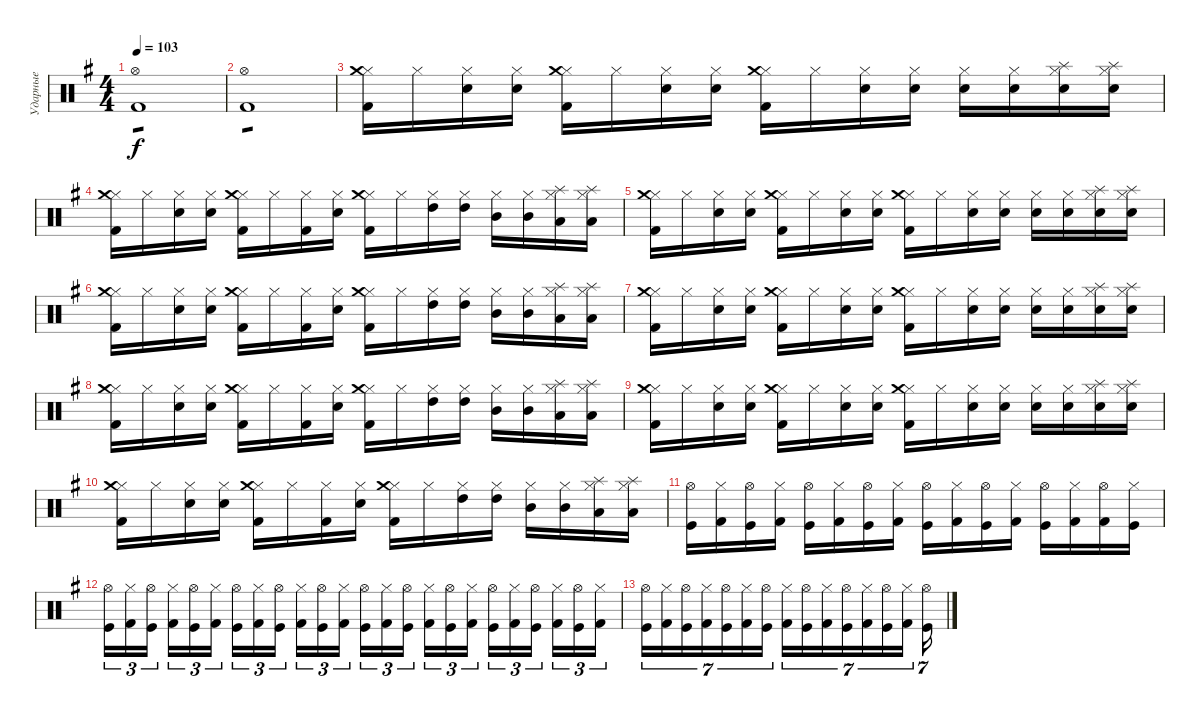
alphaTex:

\track ("Ударные" "Ударные") {instrument percussion}
\staff {score}
\articulation defaults
\ts (4 4)
\tempo 103
\clef neutral
\ks eminor
("Hi-Hat (open)" "Kick (hit) 2").1{tp 1 dy f} |
("Hi-Hat (open)" "Kick (hit) 2").1{tp 1} |
("Hi-Hat (closed)" "Crash medium (hit)" "Kick (hit) 2").16 "Hi-Hat (closed)".16 ("Hi-Hat (closed)" "Snare (hit) 2").16 ("Hi-Hat (closed)" "Snare (hit) 2").16 ("Hi-Hat (closed)" "Crash medium (hit)" "Kick (hit) 2").16 "Hi-Hat (closed)".16 ("Hi-Hat (closed)" "Snare (hit) 2").16 ("Hi-Hat (closed)" "Snare (hit) 2").16 ("Hi-Hat (closed)" "Crash medium (hit)" "Kick (hit) 2").16 "Hi-Hat (closed)".16 ("Hi-Hat (closed)" "Snare (hit) 2").16 ("Hi-Hat (closed)" "Snare (hit) 2").16 ("Hi-Hat (closed)" "Snare (hit) 2").16 ("Hi-Hat (closed)" "Snare (hit) 2").16 ("Hi-Hat (closed)" "Snare (hit) 2" "Splash (hit)").16 ("Hi-Hat (closed)" "Snare (hit) 2" "Splash (hit)").16 |
("Hi-Hat (closed)" "Crash medium (hit)" "Kick (hit) 2").16 "Hi-Hat (closed)".16 ("Hi-Hat (closed)" "Snare (hit) 2").16 ("Hi-Hat (closed)" "Snare (hit) 2").16 ("Hi-Hat (closed)" "Crash medium (hit)" "Kick (hit) 2").16 "Hi-Hat (closed)".16 ("Hi-Hat (closed)" "Kick (hit) 2").16 ("Hi-Hat (closed)" "Snare (hit) 2").16 ("Hi-Hat (closed)" "Crash medium (hit)" "Kick (hit) 2").16 "Hi-Hat (closed)".16 ("Hi-Hat (closed)" "High Tom (hit)").16 ("Hi-Hat (closed)" "High Tom (hit)").16 ("Hi-Hat (closed)" "Mid Tom (hit)").16 ("Hi-Hat (closed)" "Mid Tom (hit)").16 ("Hi-Hat (closed)" "Low Tom (hit)" "Splash (hit)").16 ("Hi-Hat (closed)" "Low Tom (hit)" "Splash (hit)").16 |
("Hi-Hat (closed)" "Crash medium (hit)" "Kick (hit) 2").16 "Hi-Hat (closed)".16 ("Hi-Hat (closed)" "Snare (hit) 2").16 ("Hi-Hat (closed)" "Snare (hit) 2").16 ("Hi-Hat (closed)" "Crash medium (hit)" "Kick (hit) 2").16 "Hi-Hat (closed)".16 ("Hi-Hat (closed)" "Snare (hit) 2").16 ("Hi-Hat (closed)" "Snare (hit) 2").16 ("Hi-Hat (closed)" "Crash medium (hit)" "Kick (hit) 2").16 "Hi-Hat (closed)".16 ("Hi-Hat (closed)" "Snare (hit) 2").16 ("Hi-Hat (closed)" "Snare (hit) 2").16 ("Hi-Hat (closed)" "Snare (hit) 2").16 ("Hi-Hat (closed)" "Snare (hit) 2").16 ("Hi-Hat (closed)" "Snare (hit) 2" "Splash (hit)").16 ("Hi-Hat (closed)" "Snare (hit) 2" "Splash (hit)").16 |
("Hi-Hat (closed)" "Crash medium (hit)" "Kick (hit) 2").16 "Hi-Hat (closed)".16 ("Hi-Hat (closed)" "Snare (hit) 2").16 ("Hi-Hat (closed)" "Snare (hit) 2").16 ("Hi-Hat (closed)" "Crash medium (hit)" "Kick (hit) 2").16 "Hi-Hat (closed)".16 ("Hi-Hat (closed)" "Kick (hit) 2").16 ("Hi-Hat (closed)" "Snare (hit) 2").16 ("Hi-Hat (closed)" "Crash medium (hit)" "Kick (hit) 2").16 "Hi-Hat (closed)".16 ("Hi-Hat (closed)" "High Tom (hit)").16 ("Hi-Hat (closed)" "High Tom (hit)").16 ("Hi-Hat (closed)" "Mid Tom (hit)").16 ("Hi-Hat (closed)" "Mid Tom (hit)").16 ("Hi-Hat (closed)" "Low Tom (hit)" "Splash (hit)").16 ("Hi-Hat (closed)" "Low Tom (hit)" "Splash (hit)").16 |
("Hi-Hat (closed)" "Crash medium (hit)" "Kick (hit) 2").16 "Hi-Hat (closed)".16 ("Hi-Hat (closed)" "Snare (hit) 2").16 ("Hi-Hat (closed)" "Snare (hit) 2").16 ("Hi-Hat (closed)" "Crash medium (hit)" "Kick (hit) 2").16 "Hi-Hat (closed)".16 ("Hi-Hat (closed)" "Snare (hit) 2").16 ("Hi-Hat (closed)" "Snare (hit) 2").16 ("Hi-Hat (closed)" "Crash medium (hit)" "Kick (hit) 2").16 "Hi-Hat (closed)".16 ("Hi-Hat (closed)" "Snare (hit) 2").16 ("Hi-Hat (closed)" "Snare (hit) 2").16 ("Hi-Hat (closed)" "Snare (hit) 2").16 ("Hi-Hat (closed)" "Snare (hit) 2").16 ("Hi-Hat (closed)" "Snare (hit) 2" "Splash (hit)").16 ("Hi-Hat (closed)" "Snare (hit) 2" "Splash (hit)").16 |
("Hi-Hat (closed)" "Crash medium (hit)" "Kick (hit) 2").16 "Hi-Hat (closed)".16 ("Hi-Hat (closed)" "Snare (hit) 2").16 ("Hi-Hat (closed)" "Snare (hit) 2").16 ("Hi-Hat (closed)" "Crash medium (hit)" "Kick (hit) 2").16 "Hi-Hat (closed)".16 ("Hi-Hat (closed)" "Kick (hit) 2").16 ("Hi-Hat (closed)" "Snare (hit) 2").16 ("Hi-Hat (closed)" "Crash medium (hit)" "Kick (hit) 2").16 "Hi-Hat (closed)".16 ("Hi-Hat (closed)" "High Tom (hit)").16 ("Hi-Hat (closed)" "High Tom (hit)").16 ("Hi-Hat (closed)" "Mid Tom (hit)").16 ("Hi-Hat (closed)" "Mid Tom (hit)").16 ("Hi-Hat (closed)" "Low Tom (hit)" "Splash (hit)").16 ("Hi-Hat (closed)" "Low Tom (hit)" "Splash (hit)").16 |
("Hi-Hat (closed)" "Crash medium (hit)" "Kick (hit) 2").16 "Hi-Hat (closed)".16 ("Hi-Hat (closed)" "Snare (hit) 2").16 ("Hi-Hat (closed)" "Snare (hit) 2").16 ("Hi-Hat (closed)" "Crash medium (hit)" "Kick (hit) 2").16 "Hi-Hat (closed)".16 ("Hi-Hat (closed)" "Snare (hit) 2").16 ("Hi-Hat (closed)" "Snare (hit) 2").16 ("Hi-Hat (closed)" "Crash medium (hit)" "Kick (hit) 2").16 "Hi-Hat (closed)".16 ("Hi-Hat (closed)" "Snare (hit) 2").16 ("Hi-Hat (closed)" "Snare (hit) 2").16 ("Hi-Hat (closed)" "Snare (hit) 2").16 ("Hi-Hat (closed)" "Snare (hit) 2").16 ("Hi-Hat (closed)" "Snare (hit) 2" "Splash (hit)").16 ("Hi-Hat (closed)" "Snare (hit) 2" "Splash (hit)").16 |
("Hi-Hat (closed)" "Crash medium (hit)" "Kick (hit) 2").16 "Hi-Hat (closed)".16 ("Hi-Hat (closed)" "Snare (hit) 2").16 ("Hi-Hat (closed)" "Snare (hit) 2").16 ("Hi-Hat (closed)" "Crash medium (hit)" "Kick (hit) 2").16 "Hi-Hat (closed)".16 ("Hi-Hat (closed)" "Kick (hit) 2").16 ("Hi-Hat (closed)" "Snare (hit) 2").16 ("Hi-Hat (closed)" "Crash medium (hit)" "Kick (hit) 2").16 "Hi-Hat (closed)".16 ("Hi-Hat (closed)" "High Tom (hit)").16 ("Hi-Hat (closed)" "High Tom (hit)").16 ("Hi-Hat (closed)" "Mid Tom (hit)").16 ("Hi-Hat (closed)" "Mid Tom (hit)").16 ("Hi-Hat (closed)" "Low Tom (hit)" "Splash (hit)").16 ("Hi-Hat (closed)" "Low Tom (hit)" "Splash (hit)").16 |
("Kick (hit)" "Hi-Hat (open)").16 ("Kick (hit) 2" "Hi-Hat (closed)").16 ("Kick (hit)" "Hi-Hat (open)").16 ("Kick (hit) 2" "Hi-Hat (closed)").16 ("Kick (hit)" "Hi-Hat (open)").16 ("Kick (hit) 2" "Hi-Hat (closed)").16 ("Kick (hit)" "Hi-Hat (open)").16 ("Kick (hit) 2" "Hi-Hat (closed)").16 ("Kick (hit)" "Hi-Hat (open)").16 ("Kick (hit) 2" "Hi-Hat (closed)").16 ("Kick (hit)" "Hi-Hat (open)").16 ("Kick (hit) 2" "Hi-Hat (closed)").16 ("Kick (hit)" "Hi-Hat (open)").16 ("Kick (hit) 2" "Hi-Hat (closed)").16 ("Kick (hit) 2" "Hi-Hat (open)").16 ("Kick (hit)" "Hi-Hat (closed)").16 |
("Kick (hit)" "Hi-Hat (open)").16{tu (3 2)} ("Kick (hit) 2" "Hi-Hat (closed)").16{tu (3 2)} ("Kick (hit)" "Hi-Hat (open)").16{tu (3 2) beam splitsecondary} ("Kick (hit) 2" "Hi-Hat (closed)").16{tu (3 2)} ("Kick (hit)" "Hi-Hat (open)").16{tu (3 2)} ("Kick (hit) 2" "Hi-Hat (closed)").16{tu (3 2)} ("Kick (hit)" "Hi-Hat (open)").16{tu (3 2)} ("Kick (hit) 2" "Hi-Hat (closed)").16{tu (3 2)} ("Kick (hit)" "Hi-Hat (open)").16{tu (3 2) beam splitsecondary} ("Kick (hit) 2" "Hi-Hat (closed)").16{tu (3 2)} ("Kick (hit)" "Hi-Hat (open)").16{tu (3 2)} ("Kick (hit) 2" "Hi-Hat (closed)").16{tu (3 2)} ("Kick (hit)" "Hi-Hat (open)").16{tu (3 2)} ("Kick (hit) 2" "Hi-Hat (closed)").16{tu (3 2)} ("Kick (hit)" "Hi-Hat (open)").16{tu (3 2) beam splitsecondary} ("Kick (hit) 2" "Hi-Hat (closed)").16{tu (3 2)} ("Kick (hit)" "Hi-Hat (open)").16{tu (3 2)} ("Kick (hit) 2" "Hi-Hat (closed)").16{tu (3 2)} ("Kick (hit)" "Hi-Hat (open)").16{tu (3 2)} ("Kick (hit) 2" "Hi-Hat (closed)").16{tu (3 2)} ("Kick (hit)" "Hi-Hat (open)").16{tu (3 2) beam splitsecondary} ("Kick (hit) 2" "Hi-Hat (closed)").16{tu (3 2)} ("Kick (hit)" "Hi-Hat (open)").16{tu (3 2)} ("Kick (hit) 2" "Hi-Hat (closed)").16{tu (3 2)} |
("Kick (hit)" "Hi-Hat (open)").16{tu (7 4)} ("Kick (hit) 2" "Hi-Hat (closed)").16{tu (7 4)} ("Kick (hit)" "Hi-Hat (open)").16{tu (7 4)} ("Kick (hit) 2" "Hi-Hat (closed)").16{tu (7 4)} ("Kick (hit)" "Hi-Hat (open)").16{tu (7 4)} ("Kick (hit) 2" "Hi-Hat (closed)").16{tu (7 4)} ("Kick (hit)" "Hi-Hat (open)").16{tu (7 4)} ("Kick (hit) 2" "Hi-Hat (closed)").16{tu (7 4)} ("Kick (hit)" "Hi-Hat (open)").16{tu (7 4)} ("Kick (hit) 2" "Hi-Hat (closed)").16{tu (7 4)} ("Kick (hit)" "Hi-Hat (open)").16{tu (7 4)} ("Kick (hit) 2" "Hi-Hat (closed)").16{tu (7 4)} ("Kick (hit)" "Hi-Hat (open)").16{tu (7 4)} ("Kick (hit) 2" "Hi-Hat (closed)").16{tu (7 4)} ("Kick (hit)" "Hi-Hat (open)").16{tu (7 4)}
